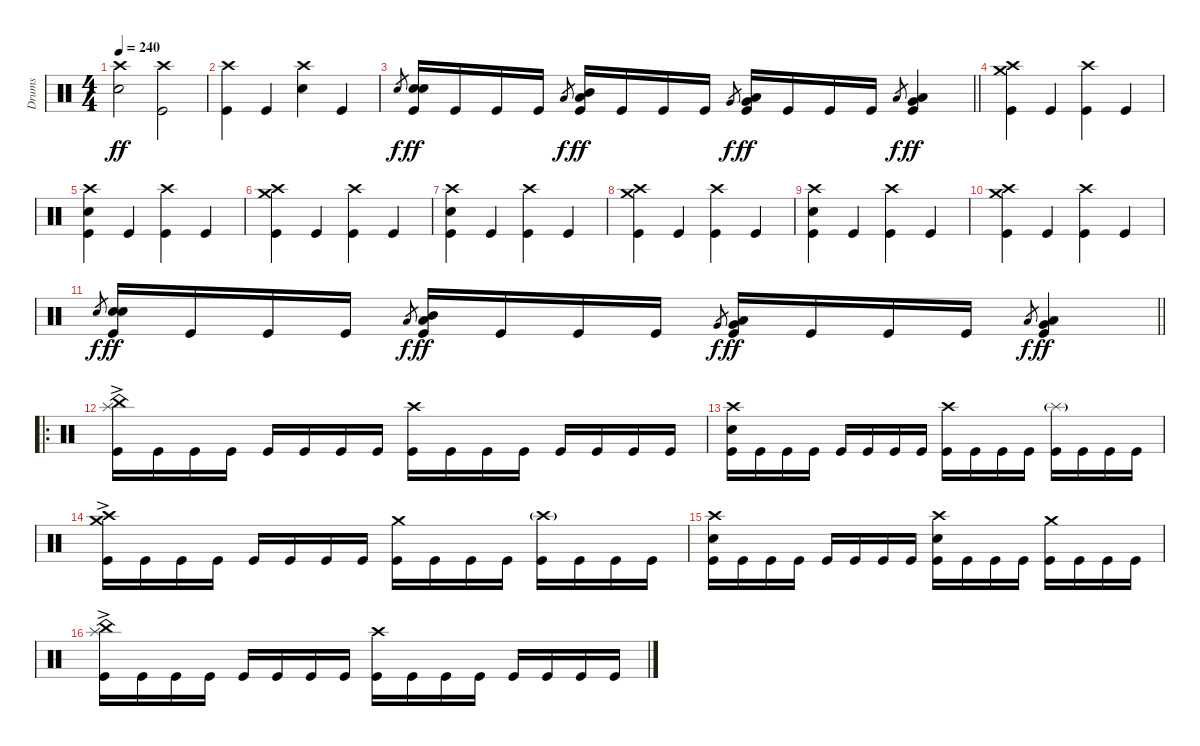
\track ("Drums" "Drums") {instrument percussion}
\staff {score}
\articulation defaults
\ts (4 4)
\tempo 240
\clef neutral
\ks c
("Crash high (hit)" "Electric Snare (hit)").2{dy ff} ("Crash high (hit)" "Kick (hit)").2 |
("Crash high (hit)" "Kick (hit)").4 "Kick (hit)".4 ("Crash high (hit)" "Electric Snare (hit)").4 "Kick (hit)".4 |
\barLineRight lightlight "Electric Snare (hit)".8{gr dy f}
("Electric Snare (hit)" "Electric Snare (hit)" "Kick (hit)").16{dy ff} "Kick (hit)".16 "Kick (hit)".16 "Kick (hit)".16 "Low Tom (hit)".8{gr dy f} ("Mid Tom (hit)" "Low Tom (hit)" "Kick (hit)").16{dy ff} "Kick (hit)".16 "Kick (hit)".16 "Kick (hit)".16 "Very Low Tom (hit)".8{gr dy f} ("Low Tom (hit)" "Very Low Tom (hit)" "Kick (hit)").16{dy ff} "Kick (hit)".16 "Kick (hit)".16 "Kick (hit)".16 "Low Floor Tom (hit)".8{gr dy f} ("Very Low Tom (hit)" "Low Floor Tom (hit)" "Kick (hit)").4{dy ff} |
\section ("" "")
("Crash high (hit)" "Crash medium (hit)" "Kick (hit)").4 "Kick (hit)".4 ("Crash high (hit)" "Kick (hit)").4 "Kick (hit)".4 |
("Crash high (hit)" "Electric Snare (hit)" "Kick (hit)").4 "Kick (hit)".4 ("Crash high (hit)" "Kick (hit)").4 "Kick (hit)".4 |
("Crash medium (hit)" "Crash high (hit)" "Kick (hit)").4 "Kick (hit)".4 ("Crash high (hit)" "Kick (hit)").4 "Kick (hit)".4 |
("Crash high (hit)" "Electric Snare (hit)" "Kick (hit)").4 "Kick (hit)".4 ("Crash high (hit)" "Kick (hit)").4 "Kick (hit)".4 |
("Crash high (hit)" "Crash medium (hit)" "Kick (hit)").4 "Kick (hit)".4 ("Crash high (hit)" "Kick (hit)").4 "Kick (hit)".4 |
("Crash high (hit)" "Electric Snare (hit)" "Kick (hit)").4 "Kick (hit)".4 ("Crash high (hit)" "Kick (hit)").4 "Kick (hit)".4 |
("Crash medium (hit)" "Crash high (hit)" "Kick (hit)").4 "Kick (hit)".4 ("Crash high (hit)" "Kick (hit)").4 "Kick (hit)".4 |
\barLineRight lightlight "Electric Snare (hit)".8{gr dy f}
("Electric Snare (hit)" "Electric Snare (hit)" "Kick (hit)").16{dy ff} "Kick (hit)".16 "Kick (hit)".16 "Kick (hit)".16 "Low Tom (hit)".8{gr dy f} ("Mid Tom (hit)" "Low Tom (hit)" "Kick (hit)").16{dy ff} "Kick (hit)".16 "Kick (hit)".16 "Kick (hit)".16 "Very Low Tom (hit)".8{gr dy f} ("Low Tom (hit)" "Very Low Tom (hit)" "Kick (hit)").16{dy ff} "Kick (hit)".16 "Kick (hit)".16 "Kick (hit)".16 "Low Floor Tom (hit)".8{gr dy f} ("Very Low Tom (hit)" "Low Floor Tom (hit)" "Kick (hit)").4{dy ff} |
\ro
\section ("" "")
("China (hit)"{ac} "Splash (hit)" "Kick (hit)").16 "Kick (hit)".16 "Kick (hit)".16 "Kick (hit)".16 "Kick (hit)".16 "Kick (hit)".16 "Kick (hit)".16 "Kick (hit)".16 ("Crash high (hit)" "Kick (hit)").16 "Kick (hit)".16 "Kick (hit)".16 "Kick (hit)".16 "Kick (hit)".16 "Kick (hit)".16 "Kick (hit)".16 "Kick (hit)".16 |
("Crash high (hit)" "Electric Snare (hit)" "Kick (hit)").16 "Kick (hit)".16 "Kick (hit)".16 "Kick (hit)".16 "Kick (hit)".16 "Kick (hit)".16 "Kick (hit)".16 "Kick (hit)".16 ("Crash high (hit)" "Kick (hit)").16 "Kick (hit)".16 "Kick (hit)".16 "Kick (hit)".16 ("Splash (hit)"{g} "Kick (hit)").16 "Kick (hit)".16 "Kick (hit)".16 "Kick (hit)".16 |
("Crash high (hit)"{ac} "Crash medium (hit)" "Kick (hit)").16 "Kick (hit)".16 "Kick (hit)".16 "Kick (hit)".16 "Kick (hit)".16 "Kick (hit)".16 "Kick (hit)".16 "Kick (hit)".16 ("Crash medium (hit)" "Kick (hit)").16 "Kick (hit)".16 "Kick (hit)".16 "Kick (hit)".16 ("Crash high (hit)"{g} "Kick (hit)").16 "Kick (hit)".16 "Kick (hit)".16 "Kick (hit)".16 |
("Crash high (hit)" "Electric Snare (hit)" "Kick (hit)").16 "Kick (hit)".16 "Kick (hit)".16 "Kick (hit)".16 "Kick (hit)".16 "Kick (hit)".16 "Kick (hit)".16 "Kick (hit)".16 ("Crash high (hit)" "Electric Snare (hit)" "Kick (hit)").16 "Kick (hit)".16 "Kick (hit)".16 "Kick (hit)".16 ("Crash medium (hit)" "Kick (hit)").16 "Kick (hit)".16 "Kick (hit)".16 "Kick (hit)".16 |
("China (hit)"{ac} "Splash (hit)" "Kick (hit)").16 "Kick (hit)".16 "Kick (hit)".16 "Kick (hit)".16 "Kick (hit)".16 "Kick (hit)".16 "Kick (hit)".16 "Kick (hit)".16 ("Crash high (hit)" "Kick (hit)").16 "Kick (hit)".16 "Kick (hit)".16 "Kick (hit)".16 "Kick (hit)".16 "Kick (hit)".16 "Kick (hit)".16 "Kick (hit)".16
